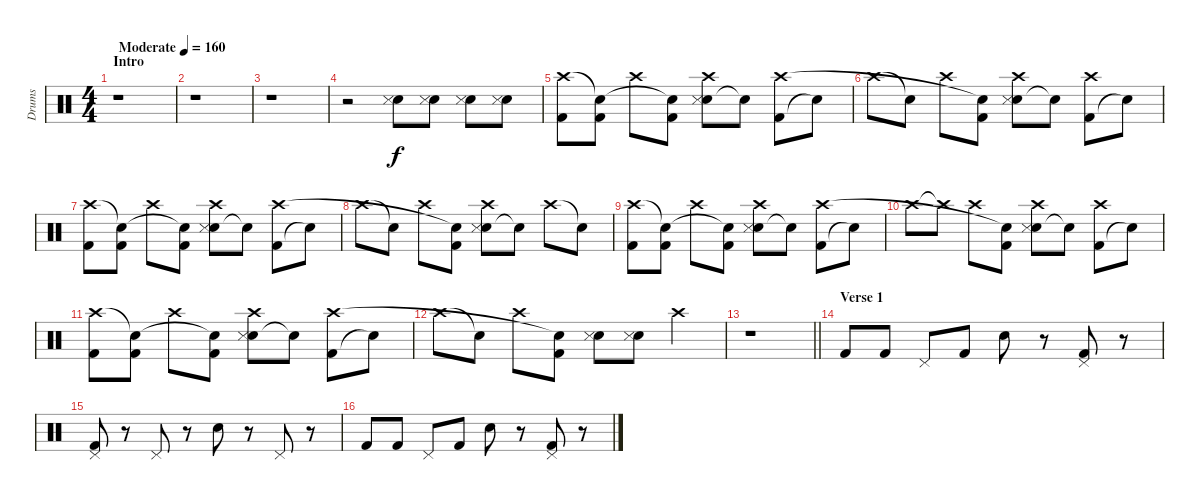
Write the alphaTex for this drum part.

\track ("Drums" "Drums") {instrument percussion}
\staff {score}
\articulation defaults
\ts (4 4)
\section ("" "Intro")
\tempo (160 "Moderate")
\clef neutral
\ks c
r.1{dy f} |
r.1 |
r.1 |
r.2 ("Snare (hit) 2" "Snare (side stick) 3").8 ("Snare (hit) 2" "Snare (side stick) 3").8 ("Snare (hit) 2" "Snare (side stick) 3").8 ("Snare (hit) 2" "Snare (side stick) 3").8 |
("Kick (hit) 2" "Crash high (hit)").8 ("Kick (hit) 2" "Snare (hit)"{t}).8 "Crash high (hit)".8 ("Kick (hit) 2" "Snare (hit)"{t}).8 ("Snare (hit) 2" "Snare (side stick) 3" "Crash high (hit)").8 "Snare (hit)"{t}.8 ("Kick (hit) 2" "Crash high (hit)").8 "Snare (hit)"{t}.8 |
"Crash high (hit)".8 "Snare (hit)"{t}.8 "Crash high (hit)".8 ("Kick (hit) 2" "Snare (hit)"{t}).8 ("Snare (hit) 2" "Snare (side stick) 3" "Crash high (hit)").8 "Snare (hit)"{t}.8 ("Kick (hit) 2" "Crash high (hit)").8 "Snare (hit)"{t}.8 |
("Kick (hit) 2" "Crash high (hit)").8 ("Kick (hit) 2" "Snare (hit)"{t}).8 "Crash high (hit)".8 ("Kick (hit) 2" "Snare (hit)"{t}).8 ("Snare (hit) 2" "Snare (side stick) 3" "Crash high (hit)").8 "Snare (hit)"{t}.8 ("Kick (hit) 2" "Crash high (hit)").8 "Snare (hit)"{t}.8 |
"Crash high (hit)".8 "Snare (hit)"{t}.8 "Crash high (hit)".8 ("Kick (hit) 2" "Snare (hit)"{t}).8 ("Snare (hit) 2" "Snare (side stick) 3" "Crash high (hit)").8 "Snare (hit)"{t}.8 "Crash high (hit)".8 "Snare (hit)"{t}.8 |
("Kick (hit) 2" "Crash high (hit)").8 ("Kick (hit) 2" "Snare (hit)"{t}).8 "Crash high (hit)".8 ("Kick (hit) 2" "Snare (hit)"{t}).8 ("Snare (hit) 2" "Snare (side stick) 3" "Crash high (hit)").8 "Snare (hit)"{t}.8 ("Kick (hit) 2" "Crash high (hit)").8 "Snare (hit)"{t}.8 |
"Crash high (hit)".8 "Crash high (hit)"{t}.8 "Crash high (hit)".8 ("Kick (hit) 2" "Snare (hit)"{t}).8 ("Snare (hit) 2" "Snare (side stick) 3" "Crash high (hit)").8 "Snare (hit)"{t}.8 ("Kick (hit) 2" "Crash high (hit)").8 "Snare (hit)"{t}.8 |
("Kick (hit) 2" "Crash high (hit)").8 ("Kick (hit) 2" "Snare (hit)"{t}).8 "Crash high (hit)".8 ("Kick (hit) 2" "Snare (hit)"{t}).8 ("Snare (hit) 2" "Snare (side stick) 3" "Crash high (hit)").8 "Snare (hit)"{t}.8 ("Kick (hit) 2" "Crash high (hit)").8 "Snare (hit)"{t}.8 |
"Crash high (hit)".8 "Snare (hit)"{t}.8 "Crash high (hit)".8 ("Kick (hit) 2" "Snare (hit)"{t}).8 ("Snare (hit) 2" "Snare (side stick) 3").8 ("Snare (hit) 2" "Snare (side stick) 3").8 "Crash high (hit)".4 |
\barLineRight lightlight
r.1 |
\section ("" "Verse 1")
"Kick (hit) 2".8 "Kick (hit) 2".8 "Pedal Hi-Hat (hit)".8 "Kick (hit) 2".8 "Snare (hit) 2".8 r.8 ("Kick (hit) 2" "Pedal Hi-Hat (hit)").8 r.8 |
("Kick (hit) 2" "Pedal Hi-Hat (hit)").8 r.8 "Pedal Hi-Hat (hit)".8 r.8 "Snare (hit) 2".8 r.8 "Pedal Hi-Hat (hit)".8 r.8 |
"Kick (hit) 2".8 "Kick (hit) 2".8 "Pedal Hi-Hat (hit)".8 "Kick (hit) 2".8 "Snare (hit) 2".8 r.8 ("Kick (hit) 2" "Pedal Hi-Hat (hit)").8 r.8
